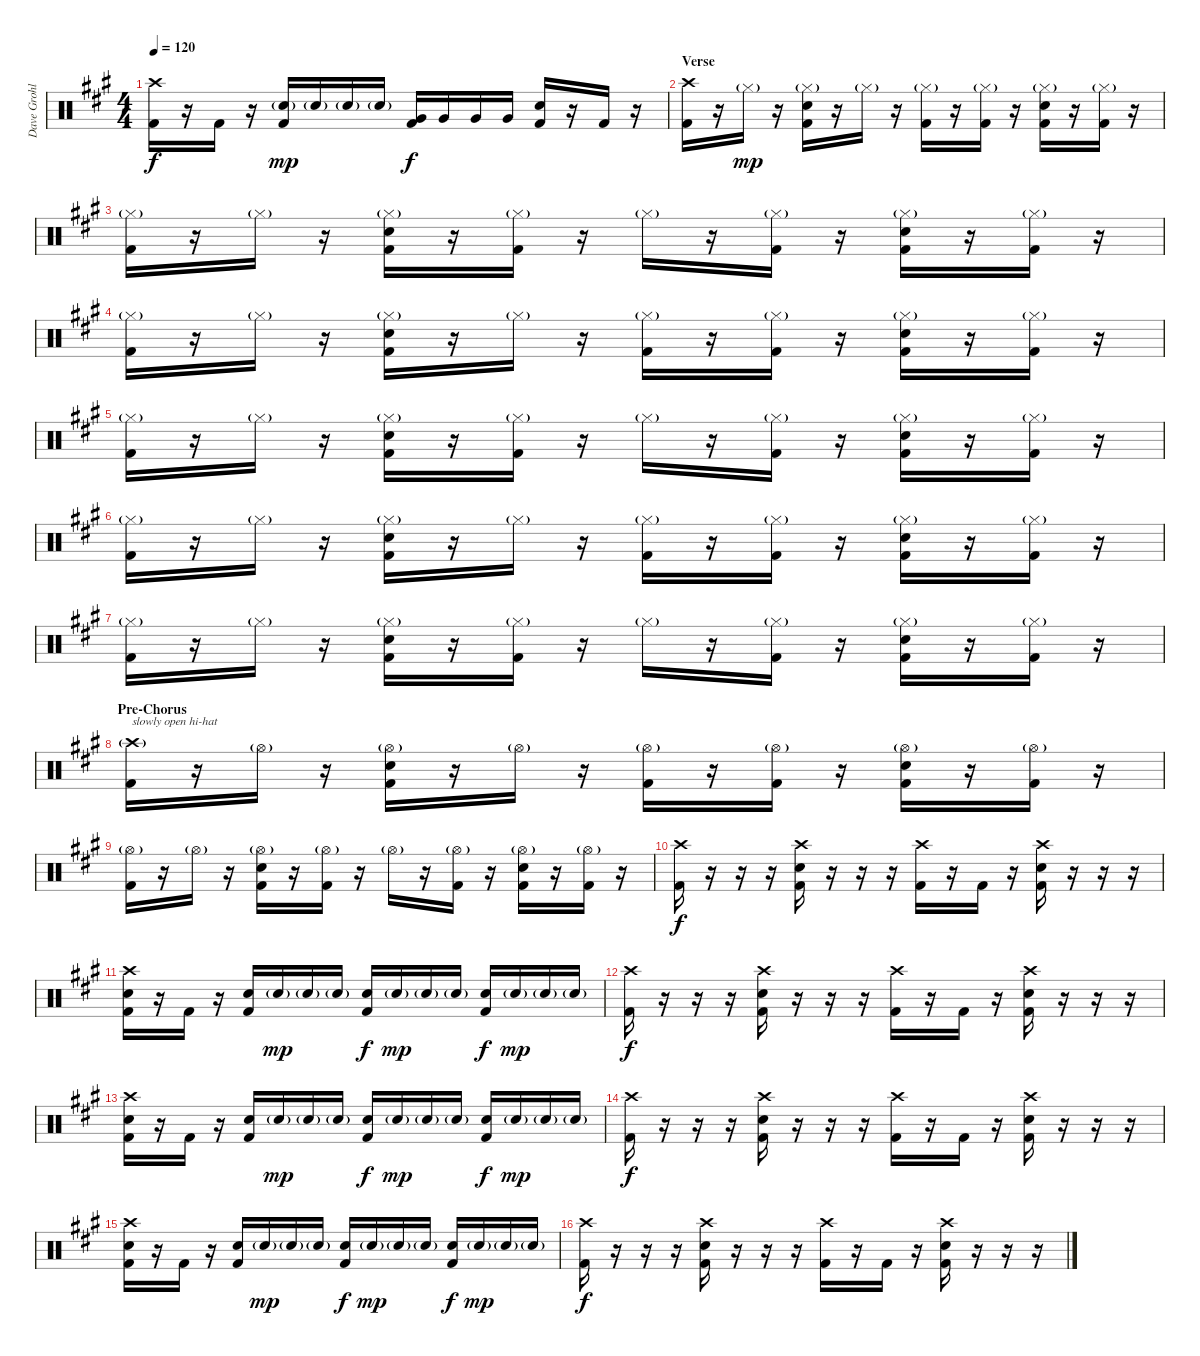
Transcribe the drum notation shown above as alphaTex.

\track ("Dave Grohl (Drums)" "Dave Grohl") {instrument percussion}
\staff {score}
\articulation defaults
\ts (4 4)
\tempo 120
\clef neutral
\ks a
("Crash high (hit)" "Kick (hit) 2").16{dy f} r.16 "Kick (hit) 2".16 r.16 ("Snare (hit) 2"{g} "Kick (hit) 2").16{dy mp} "Snare (hit) 2"{g}.16 "Snare (hit) 2"{g}.16 "Snare (hit) 2"{g}.16 ("Very Low Tom (hit)" "Kick (hit) 2").16{dy f} "Very Low Tom (hit)".16 "Very Low Tom (hit)".16 "Very Low Tom (hit)".16 ("Snare (hit) 2" "Kick (hit) 2").16 r.16 "Kick (hit) 2".16 r.16 |
\section ("" "Verse")
("Crash high (hit)" "Kick (hit) 2").16 r.16 "Hi-Hat (closed)"{g}.16{dy mp} r.16 ("Hi-Hat (closed)"{g} "Snare (hit) 2" "Kick (hit) 2").16 r.16 "Hi-Hat (closed)"{g}.16 r.16 ("Hi-Hat (closed)"{g} "Kick (hit) 2").16 r.16 ("Hi-Hat (closed)"{g} "Kick (hit) 2").16 r.16 ("Hi-Hat (closed)"{g} "Snare (hit) 2" "Kick (hit) 2").16 r.16 ("Hi-Hat (closed)"{g} "Kick (hit) 2").16 r.16 |
("Hi-Hat (closed)"{g} "Kick (hit) 2").16 r.16 "Hi-Hat (closed)"{g}.16 r.16 ("Hi-Hat (closed)"{g} "Snare (hit) 2" "Kick (hit) 2").16 r.16 ("Hi-Hat (closed)"{g} "Kick (hit) 2").16 r.16 "Hi-Hat (closed)"{g}.16 r.16 ("Hi-Hat (closed)"{g} "Kick (hit) 2").16 r.16 ("Hi-Hat (closed)"{g} "Snare (hit) 2" "Kick (hit) 2").16 r.16 ("Hi-Hat (closed)"{g} "Kick (hit) 2").16 r.16 |
("Hi-Hat (closed)"{g} "Kick (hit) 2").16 r.16 "Hi-Hat (closed)"{g}.16 r.16 ("Hi-Hat (closed)"{g} "Snare (hit) 2" "Kick (hit) 2").16 r.16 "Hi-Hat (closed)"{g}.16 r.16 ("Hi-Hat (closed)"{g} "Kick (hit) 2").16 r.16 ("Hi-Hat (closed)"{g} "Kick (hit) 2").16 r.16 ("Hi-Hat (closed)"{g} "Snare (hit) 2" "Kick (hit) 2").16 r.16 ("Hi-Hat (closed)"{g} "Kick (hit) 2").16 r.16 |
("Hi-Hat (closed)"{g} "Kick (hit) 2").16 r.16 "Hi-Hat (closed)"{g}.16 r.16 ("Hi-Hat (closed)"{g} "Snare (hit) 2" "Kick (hit) 2").16 r.16 ("Hi-Hat (closed)"{g} "Kick (hit) 2").16 r.16 "Hi-Hat (closed)"{g}.16 r.16 ("Hi-Hat (closed)"{g} "Kick (hit) 2").16 r.16 ("Hi-Hat (closed)"{g} "Snare (hit) 2" "Kick (hit) 2").16 r.16 ("Hi-Hat (closed)"{g} "Kick (hit) 2").16 r.16 |
("Hi-Hat (closed)"{g} "Kick (hit) 2").16 r.16 "Hi-Hat (closed)"{g}.16 r.16 ("Hi-Hat (closed)"{g} "Snare (hit) 2" "Kick (hit) 2").16 r.16 "Hi-Hat (closed)"{g}.16 r.16 ("Hi-Hat (closed)"{g} "Kick (hit) 2").16 r.16 ("Hi-Hat (closed)"{g} "Kick (hit) 2").16 r.16 ("Hi-Hat (closed)"{g} "Snare (hit) 2" "Kick (hit) 2").16 r.16 ("Hi-Hat (closed)"{g} "Kick (hit) 2").16 r.16 |
("Hi-Hat (closed)"{g} "Kick (hit) 2").16 r.16 "Hi-Hat (closed)"{g}.16 r.16 ("Hi-Hat (closed)"{g} "Snare (hit) 2" "Kick (hit) 2").16 r.16 ("Hi-Hat (closed)"{g} "Kick (hit) 2").16 r.16 "Hi-Hat (closed)"{g}.16 r.16 ("Hi-Hat (closed)"{g} "Kick (hit) 2").16 r.16 ("Hi-Hat (closed)"{g} "Snare (hit) 2" "Kick (hit) 2").16 r.16 ("Hi-Hat (closed)"{g} "Kick (hit) 2").16 r.16 |
\section ("" "Pre-Chorus")
("Crash high (hit)"{g} "Kick (hit) 2").16{txt "slowly open hi-hat"} r.16 "Hi-Hat (open)"{g}.16 r.16 ("Hi-Hat (open)"{g} "Snare (hit) 2" "Kick (hit) 2").16 r.16 "Hi-Hat (open)"{g}.16 r.16 ("Hi-Hat (open)"{g} "Kick (hit) 2").16 r.16 ("Hi-Hat (open)"{g} "Kick (hit) 2").16 r.16 ("Hi-Hat (open)"{g} "Snare (hit) 2" "Kick (hit) 2").16 r.16 ("Hi-Hat (open)"{g} "Kick (hit) 2").16 r.16 |
("Hi-Hat (open)"{g} "Kick (hit) 2").16 r.16 "Hi-Hat (open)"{g}.16 r.16 ("Hi-Hat (open)"{g} "Snare (hit) 2" "Kick (hit) 2").16 r.16 ("Hi-Hat (open)"{g} "Kick (hit) 2").16 r.16 "Hi-Hat (open)"{g}.16 r.16 ("Hi-Hat (open)"{g} "Kick (hit) 2").16 r.16 ("Hi-Hat (open)"{g} "Snare (hit) 2" "Kick (hit) 2").16 r.16 ("Hi-Hat (open)"{g} "Kick (hit) 2").16 r.16 |
("Crash high (hit)" "Kick (hit) 2").16{dy f} r.16 r.16 r.16 ("Crash high (hit)" "Snare (hit) 2" "Kick (hit) 2").16 r.16 r.16 r.16 ("Crash high (hit)" "Kick (hit) 2").16 r.16 "Kick (hit) 2".16 r.16 ("Crash high (hit)" "Snare (hit) 2" "Kick (hit) 2").16 r.16 r.16 r.16 |
("Crash high (hit)" "Snare (hit) 2" "Kick (hit) 2").16 r.16 "Kick (hit) 2".16 r.16 ("Snare (hit) 2" "Kick (hit) 2").16 "Snare (hit) 2"{g}.16{dy mp} "Snare (hit) 2"{g}.16 "Snare (hit) 2"{g}.16 ("Snare (hit) 2" "Kick (hit) 2").16{dy f} "Snare (hit) 2"{g}.16{dy mp} "Snare (hit) 2"{g}.16 "Snare (hit) 2"{g}.16 ("Snare (hit) 2" "Kick (hit) 2").16{dy f} "Snare (hit) 2"{g}.16{dy mp} "Snare (hit) 2"{g}.16 "Snare (hit) 2"{g}.16 |
("Crash high (hit)" "Kick (hit) 2").16{dy f} r.16 r.16 r.16 ("Crash high (hit)" "Snare (hit) 2" "Kick (hit) 2").16 r.16 r.16 r.16 ("Crash high (hit)" "Kick (hit) 2").16 r.16 "Kick (hit) 2".16 r.16 ("Crash high (hit)" "Snare (hit) 2" "Kick (hit) 2").16 r.16 r.16 r.16 |
("Crash high (hit)" "Snare (hit) 2" "Kick (hit) 2").16 r.16 "Kick (hit) 2".16 r.16 ("Snare (hit) 2" "Kick (hit) 2").16 "Snare (hit) 2"{g}.16{dy mp} "Snare (hit) 2"{g}.16 "Snare (hit) 2"{g}.16 ("Snare (hit) 2" "Kick (hit) 2").16{dy f} "Snare (hit) 2"{g}.16{dy mp} "Snare (hit) 2"{g}.16 "Snare (hit) 2"{g}.16 ("Snare (hit) 2" "Kick (hit) 2").16{dy f} "Snare (hit) 2"{g}.16{dy mp} "Snare (hit) 2"{g}.16 "Snare (hit) 2"{g}.16 |
("Crash high (hit)" "Kick (hit) 2").16{dy f} r.16 r.16 r.16 ("Crash high (hit)" "Snare (hit) 2" "Kick (hit) 2").16 r.16 r.16 r.16 ("Crash high (hit)" "Kick (hit) 2").16 r.16 "Kick (hit) 2".16 r.16 ("Crash high (hit)" "Snare (hit) 2" "Kick (hit) 2").16 r.16 r.16 r.16 |
("Crash high (hit)" "Snare (hit) 2" "Kick (hit) 2").16 r.16 "Kick (hit) 2".16 r.16 ("Snare (hit) 2" "Kick (hit) 2").16 "Snare (hit) 2"{g}.16{dy mp} "Snare (hit) 2"{g}.16 "Snare (hit) 2"{g}.16 ("Snare (hit) 2" "Kick (hit) 2").16{dy f} "Snare (hit) 2"{g}.16{dy mp} "Snare (hit) 2"{g}.16 "Snare (hit) 2"{g}.16 ("Snare (hit) 2" "Kick (hit) 2").16{dy f} "Snare (hit) 2"{g}.16{dy mp} "Snare (hit) 2"{g}.16 "Snare (hit) 2"{g}.16 |
("Crash high (hit)" "Kick (hit) 2").16{dy f} r.16 r.16 r.16 ("Crash high (hit)" "Snare (hit) 2" "Kick (hit) 2").16 r.16 r.16 r.16 ("Crash high (hit)" "Kick (hit) 2").16 r.16 "Kick (hit) 2".16 r.16 ("Crash high (hit)" "Snare (hit) 2" "Kick (hit) 2").16 r.16 r.16 r.16
